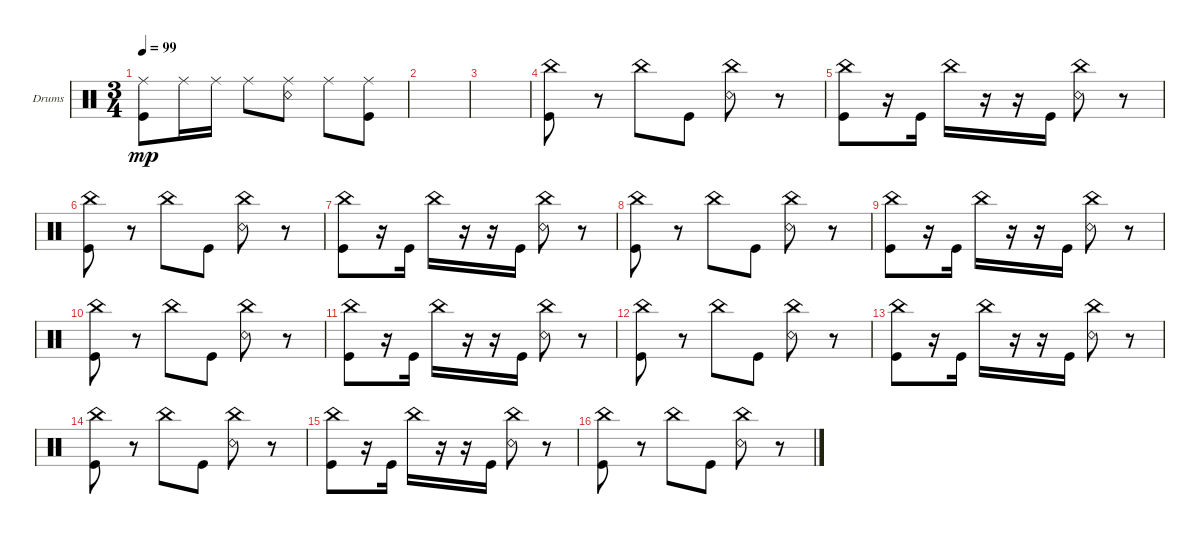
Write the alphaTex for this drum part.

\defaultSystemsLayout 4
\bracketExtendMode groupsimilarinstruments
\firstSystemTrackNameOrientation horizontal
\otherSystemsTrackNameOrientation horizontal
\track ("Drumkit" "Drums") {instrument percussion}
\staff {score}
\articulation defaults
\ts (3 4)
\tempo 99
\clef neutral
\ks c
("Ride (middle)" "Kick (hit)").8{dy mp} "Ride (middle)".16 "Ride (middle)".16 "Ride (middle)".8 ("Ride (middle)" "Snare (rim shot)").8 "Ride (middle)".8 ("Ride (middle)" "Kick (hit)").8 |
|
|
("Kick (hit)" "China (hit)").8 r.8 "China (hit)".8 "Kick (hit)".8 ("Snare (rim shot)" "China (hit)").8 r.8 |
("Kick (hit)" "China (hit)").8 r.16 "Kick (hit)".16 "China (hit)".16 r.16 r.16 "Kick (hit)".16 ("Snare (rim shot)" "China (hit)").8 r.8 |
("Kick (hit)" "China (hit)").8 r.8 "China (hit)".8 "Kick (hit)".8 ("Snare (rim shot)" "China (hit)").8 r.8 |
("Kick (hit)" "China (hit)").8 r.16 "Kick (hit)".16 "China (hit)".16 r.16 r.16 "Kick (hit)".16 ("Snare (rim shot)" "China (hit)").8 r.8 |
("Kick (hit)" "China (hit)").8 r.8 "China (hit)".8 "Kick (hit)".8 ("Snare (rim shot)" "China (hit)").8 r.8 |
("Kick (hit)" "China (hit)").8 r.16 "Kick (hit)".16 "China (hit)".16 r.16 r.16 "Kick (hit)".16 ("Snare (rim shot)" "China (hit)").8 r.8 |
("Kick (hit)" "China (hit)").8 r.8 "China (hit)".8 "Kick (hit)".8 ("Snare (rim shot)" "China (hit)").8 r.8 |
("Kick (hit)" "China (hit)").8 r.16 "Kick (hit)".16 "China (hit)".16 r.16 r.16 "Kick (hit)".16 ("Snare (rim shot)" "China (hit)").8 r.8 |
("Kick (hit)" "China (hit)").8 r.8 "China (hit)".8 "Kick (hit)".8 ("Snare (rim shot)" "China (hit)").8 r.8 |
("Kick (hit)" "China (hit)").8 r.16 "Kick (hit)".16 "China (hit)".16 r.16 r.16 "Kick (hit)".16 ("Snare (rim shot)" "China (hit)").8 r.8 |
("Kick (hit)" "China (hit)").8 r.8 "China (hit)".8 "Kick (hit)".8 ("Snare (rim shot)" "China (hit)").8 r.8 |
("Kick (hit)" "China (hit)").8 r.16 "Kick (hit)".16 "China (hit)".16 r.16 r.16 "Kick (hit)".16 ("Snare (rim shot)" "China (hit)").8 r.8 |
("Kick (hit)" "China (hit)").8 r.8 "China (hit)".8 "Kick (hit)".8 ("Snare (rim shot)" "China (hit)").8 r.8
